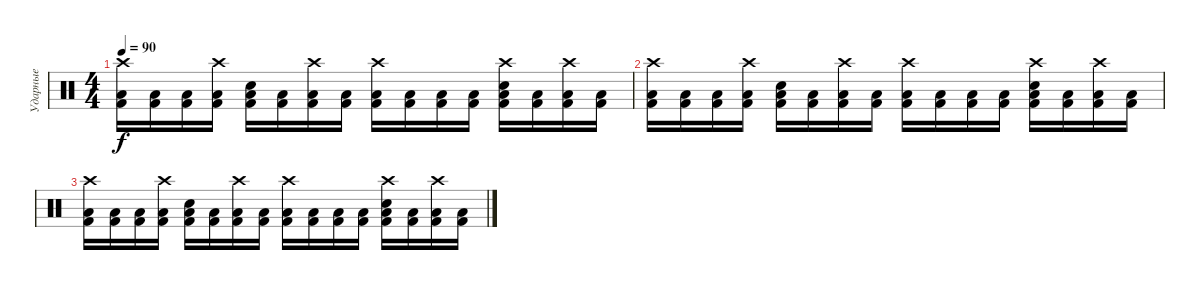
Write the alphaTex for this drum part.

\track ("Ударные" "Ударные") {instrument percussion}
\staff {score}
\articulation defaults
\ts (4 4)
\tempo 90
\clef neutral
\ks c
("Low Floor Tom (hit)" "Kick (hit) 2" "Crash high (hit)").16{dy f} ("Low Floor Tom (hit)" "Kick (hit) 2").16 ("Low Floor Tom (hit)" "Kick (hit) 2").16 ("Low Floor Tom (hit)" "Kick (hit) 2" "Crash high (hit)").16 ("Low Floor Tom (hit)" "Kick (hit) 2" "Snare (hit) 2").16 ("Low Floor Tom (hit)" "Kick (hit) 2").16 ("Low Floor Tom (hit)" "Kick (hit) 2" "Crash high (hit)").16 ("Low Floor Tom (hit)" "Kick (hit) 2").16 ("Low Floor Tom (hit)" "Kick (hit) 2" "Crash high (hit)").16 ("Low Floor Tom (hit)" "Kick (hit) 2").16 ("Low Floor Tom (hit)" "Kick (hit) 2").16 ("Low Floor Tom (hit)" "Kick (hit) 2").16 ("Low Floor Tom (hit)" "Kick (hit) 2" "Snare (hit) 2" "Crash high (hit)").16 ("Low Floor Tom (hit)" "Kick (hit) 2").16 ("Low Floor Tom (hit)" "Kick (hit) 2" "Crash high (hit)").16 ("Low Floor Tom (hit)" "Kick (hit) 2").16 |
("Low Floor Tom (hit)" "Kick (hit) 2" "Crash high (hit)").16 ("Low Floor Tom (hit)" "Kick (hit) 2").16 ("Low Floor Tom (hit)" "Kick (hit) 2").16 ("Low Floor Tom (hit)" "Kick (hit) 2" "Crash high (hit)").16 ("Low Floor Tom (hit)" "Kick (hit) 2" "Snare (hit) 2").16 ("Low Floor Tom (hit)" "Kick (hit) 2").16 ("Low Floor Tom (hit)" "Kick (hit) 2" "Crash high (hit)").16 ("Low Floor Tom (hit)" "Kick (hit) 2").16 ("Low Floor Tom (hit)" "Kick (hit) 2" "Crash high (hit)").16 ("Low Floor Tom (hit)" "Kick (hit) 2").16 ("Low Floor Tom (hit)" "Kick (hit) 2").16 ("Low Floor Tom (hit)" "Kick (hit) 2").16 ("Low Floor Tom (hit)" "Kick (hit) 2" "Snare (hit) 2" "Crash high (hit)").16 ("Low Floor Tom (hit)" "Kick (hit) 2").16 ("Low Floor Tom (hit)" "Kick (hit) 2" "Crash high (hit)").16 ("Low Floor Tom (hit)" "Kick (hit) 2").16 |
("Low Floor Tom (hit)" "Kick (hit) 2" "Crash high (hit)").16 ("Low Floor Tom (hit)" "Kick (hit) 2").16 ("Low Floor Tom (hit)" "Kick (hit) 2").16 ("Low Floor Tom (hit)" "Kick (hit) 2" "Crash high (hit)").16 ("Low Floor Tom (hit)" "Kick (hit) 2" "Snare (hit) 2").16 ("Low Floor Tom (hit)" "Kick (hit) 2").16 ("Low Floor Tom (hit)" "Kick (hit) 2" "Crash high (hit)").16 ("Low Floor Tom (hit)" "Kick (hit) 2").16 ("Low Floor Tom (hit)" "Kick (hit) 2" "Crash high (hit)").16 ("Low Floor Tom (hit)" "Kick (hit) 2").16 ("Low Floor Tom (hit)" "Kick (hit) 2").16 ("Low Floor Tom (hit)" "Kick (hit) 2").16 ("Low Floor Tom (hit)" "Kick (hit) 2" "Snare (hit) 2" "Crash high (hit)").16 ("Low Floor Tom (hit)" "Kick (hit) 2").16 ("Low Floor Tom (hit)" "Kick (hit) 2" "Crash high (hit)").16 ("Low Floor Tom (hit)" "Kick (hit) 2").16
